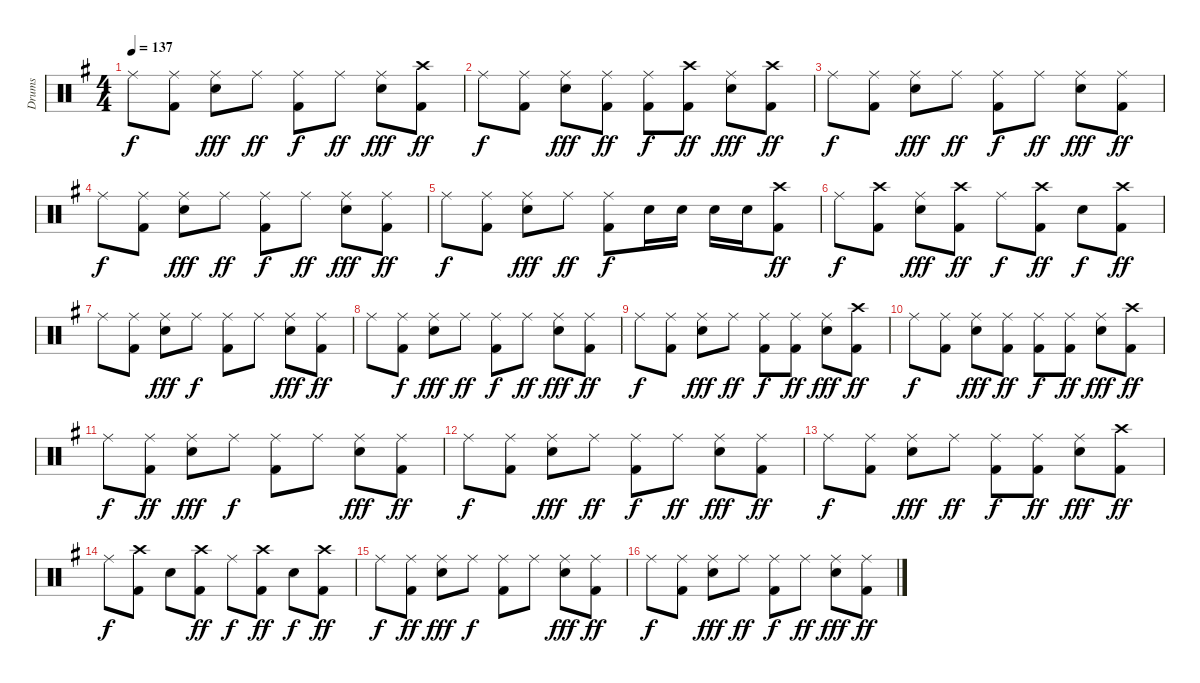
\track ("Drums" "Drums") {instrument percussion}
\staff {score}
\articulation defaults
\ts (4 4)
\tempo 137
\clef neutral
\ks g "Ride (middle)".8{dy f}
("Ride (middle)" "Kick (hit) 2").8 ("Ride (middle)" "Snare (hit) 2").8{dy fff} "Ride (middle)".8{dy ff} ("Ride (middle)" "Kick (hit) 2").8{dy f} "Ride (middle)".8{dy ff} ("Ride (middle)" "Snare (hit) 2").8{dy fff} ("Crash high (hit)" "Kick (hit) 2").8{dy ff} |
"Ride (middle)".8{dy f} ("Ride (middle)" "Kick (hit) 2").8 ("Ride (middle)" "Snare (hit) 2").8{dy fff} ("Ride (middle)" "Kick (hit) 2").8{dy ff} ("Ride (middle)" "Kick (hit) 2").8{dy f} ("Crash high (hit)" "Kick (hit) 2").8{dy ff} ("Ride (middle)" "Snare (hit) 2").8{dy fff} ("Crash high (hit)" "Kick (hit) 2").8{dy ff} |
"Ride (middle)".8{dy f} ("Ride (middle)" "Kick (hit) 2").8 ("Ride (middle)" "Snare (hit) 2").8{dy fff} "Ride (middle)".8{dy ff} ("Ride (middle)" "Kick (hit) 2").8{dy f} "Ride (middle)".8{dy ff} ("Ride (middle)" "Snare (hit) 2").8{dy fff} ("Ride (middle)" "Kick (hit) 2").8{dy ff} |
"Ride (middle)".8{dy f} ("Ride (middle)" "Kick (hit) 2").8 ("Ride (middle)" "Snare (hit) 2").8{dy fff} "Ride (middle)".8{dy ff} ("Ride (middle)" "Kick (hit) 2").8{dy f} "Ride (middle)".8{dy ff} ("Ride (middle)" "Snare (hit) 2").8{dy fff} ("Ride (middle)" "Kick (hit) 2").8{dy ff} |
"Ride (middle)".8{dy f} ("Ride (middle)" "Kick (hit) 2").8 ("Ride (middle)" "Snare (hit) 2").8{dy fff} "Ride (middle)".8{dy ff} ("Ride (middle)" "Kick (hit) 2").8{dy f} "Snare (hit) 2".16 "Snare (hit) 2".16 "Snare (hit) 2".16 "Snare (hit) 2".16 ("Crash high (hit)" "Kick (hit) 2").8{dy ff} |
"Ride (middle)".8{dy f} ("Crash high (hit)" "Kick (hit) 2").8 ("Ride (middle)" "Snare (hit) 2").8{dy fff} ("Crash high (hit)" "Kick (hit) 2").8{dy ff} "Ride (middle)".8{dy f} ("Crash high (hit)" "Kick (hit) 2").8{dy ff} "Snare (hit) 2".8{dy f} ("Crash high (hit)" "Kick (hit) 2").8{dy ff} |
"Ride (middle)".8 ("Ride (middle)" "Kick (hit) 2").8 ("Ride (middle)" "Snare (hit) 2").8{dy fff} "Ride (middle)".8{dy f} ("Ride (middle)" "Kick (hit) 2").8 "Ride (middle)".8 ("Ride (middle)" "Snare (hit) 2").8{dy fff} ("Ride (middle)" "Kick (hit) 2").8{dy ff} |
"Ride (middle)".8 ("Ride (middle)" "Kick (hit) 2").8{dy f} ("Ride (middle)" "Snare (hit) 2").8{dy fff} "Ride (middle)".8{dy ff} ("Ride (middle)" "Kick (hit) 2").8{dy f} "Ride (middle)".8{dy ff} ("Ride (middle)" "Snare (hit) 2").8{dy fff} ("Ride (middle)" "Kick (hit) 2").8{dy ff} |
"Ride (middle)".8{dy f} ("Ride (middle)" "Kick (hit) 2").8 ("Ride (middle)" "Snare (hit) 2").8{dy fff} "Ride (middle)".8{dy ff} ("Ride (middle)" "Kick (hit) 2").8{dy f} ("Ride (middle)" "Kick (hit) 2").8{dy ff} ("Ride (middle)" "Snare (hit) 2").8{dy fff} ("Crash high (hit)" "Kick (hit) 2").8{dy ff} |
"Ride (middle)".8{dy f} ("Ride (middle)" "Kick (hit) 2").8 ("Ride (middle)" "Snare (hit) 2").8{dy fff} ("Ride (middle)" "Kick (hit) 2").8{dy ff} ("Ride (middle)" "Kick (hit) 2").8{dy f} ("Ride (middle)" "Kick (hit) 2").8{dy ff} ("Ride (middle)" "Snare (hit) 2").8{dy fff} ("Crash high (hit)" "Kick (hit) 2").8{dy ff} |
"Ride (middle)".8{dy f} ("Ride (middle)" "Kick (hit) 2").8{dy ff} ("Ride (middle)" "Snare (hit) 2").8{dy fff} "Ride (middle)".8{dy f} ("Ride (middle)" "Kick (hit) 2").8 "Ride (middle)".8 ("Ride (middle)" "Snare (hit) 2").8{dy fff} ("Ride (middle)" "Kick (hit) 2").8{dy ff} |
"Ride (middle)".8{dy f} ("Ride (middle)" "Kick (hit) 2").8 ("Ride (middle)" "Snare (hit) 2").8{dy fff} "Ride (middle)".8{dy ff} ("Ride (middle)" "Kick (hit) 2").8{dy f} "Ride (middle)".8{dy ff} ("Ride (middle)" "Snare (hit) 2").8{dy fff} ("Ride (middle)" "Kick (hit) 2").8{dy ff} |
"Ride (middle)".8{dy f} ("Ride (middle)" "Kick (hit) 2").8 ("Ride (middle)" "Snare (hit) 2").8{dy fff} "Ride (middle)".8{dy ff} ("Ride (middle)" "Kick (hit) 2").8{dy f} ("Ride (middle)" "Kick (hit) 2").8{dy ff} ("Ride (middle)" "Snare (hit) 2").8{dy fff} ("Crash high (hit)" "Kick (hit) 2").8{dy ff} |
"Ride (middle)".8{dy f} ("Crash high (hit)" "Kick (hit) 2").8 "Snare (hit) 2".8 ("Crash high (hit)" "Kick (hit) 2").8{dy ff} "Ride (middle)".8{dy f} ("Crash high (hit)" "Kick (hit) 2").8{dy ff} "Snare (hit) 2".8{dy f} ("Crash high (hit)" "Kick (hit) 2").8{dy ff} |
"Ride (middle)".8{dy f} ("Ride (middle)" "Kick (hit) 2").8{dy ff} ("Ride (middle)" "Snare (hit) 2").8{dy fff} "Ride (middle)".8{dy f} ("Ride (middle)" "Kick (hit) 2").8 "Ride (middle)".8 ("Ride (middle)" "Snare (hit) 2").8{dy fff} ("Ride (middle)" "Kick (hit) 2").8{dy ff} |
"Ride (middle)".8{dy f} ("Ride (middle)" "Kick (hit) 2").8 ("Ride (middle)" "Snare (hit) 2").8{dy fff} "Ride (middle)".8{dy ff} ("Ride (middle)" "Kick (hit) 2").8{dy f} "Ride (middle)".8{dy ff} ("Ride (middle)" "Snare (hit) 2").8{dy fff} ("Ride (middle)" "Kick (hit) 2").8{dy ff}
